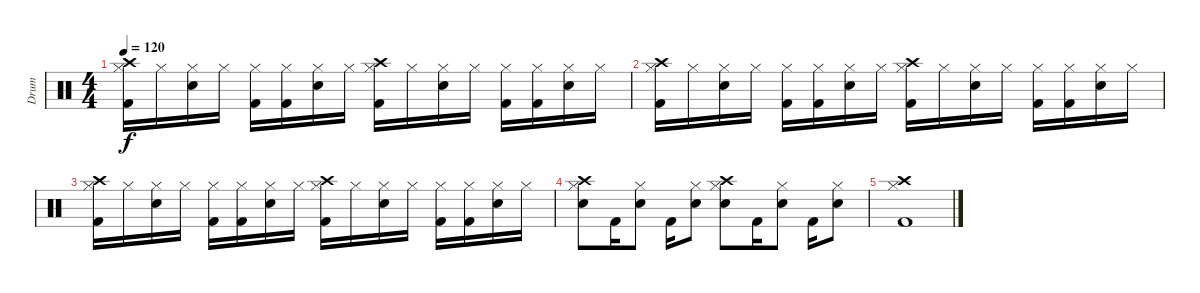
\track ("Drum" "Drum") {instrument percussion}
\staff {score}
\articulation defaults
\ts (4 4)
\tempo 120
\clef neutral
\ks c
("Kick (hit) 2" "Hi-Hat (closed)" "Crash high (hit)").16{dy f} "Hi-Hat (closed)".16 ("Electric Snare (hit)" "Hi-Hat (closed)").16 "Hi-Hat (closed)".16 ("Kick (hit) 2" "Hi-Hat (closed)").16 ("Kick (hit) 2" "Hi-Hat (closed)").16 ("Electric Snare (hit)" "Hi-Hat (closed)").16 "Hi-Hat (closed)".16 ("Kick (hit) 2" "Hi-Hat (closed)" "Crash high (hit)").16 "Hi-Hat (closed)".16 ("Electric Snare (hit)" "Hi-Hat (closed)").16 "Hi-Hat (closed)".16 ("Kick (hit) 2" "Hi-Hat (closed)").16 ("Kick (hit) 2" "Hi-Hat (closed)").16 ("Electric Snare (hit)" "Hi-Hat (closed)").16 "Hi-Hat (closed)".16 |
("Kick (hit) 2" "Hi-Hat (closed)" "Crash high (hit)").16 "Hi-Hat (closed)".16 ("Electric Snare (hit)" "Hi-Hat (closed)").16 "Hi-Hat (closed)".16 ("Kick (hit) 2" "Hi-Hat (closed)").16 ("Kick (hit) 2" "Hi-Hat (closed)").16 ("Electric Snare (hit)" "Hi-Hat (closed)").16 "Hi-Hat (closed)".16 ("Kick (hit) 2" "Hi-Hat (closed)" "Crash high (hit)").16 "Hi-Hat (closed)".16 ("Electric Snare (hit)" "Hi-Hat (closed)").16 "Hi-Hat (closed)".16 ("Kick (hit) 2" "Hi-Hat (closed)").16 ("Kick (hit) 2" "Hi-Hat (closed)").16 ("Electric Snare (hit)" "Hi-Hat (closed)").16 "Hi-Hat (closed)".16 |
("Kick (hit) 2" "Hi-Hat (closed)" "Crash high (hit)").16 "Hi-Hat (closed)".16 ("Electric Snare (hit)" "Hi-Hat (closed)").16 "Hi-Hat (closed)".16 ("Kick (hit) 2" "Hi-Hat (closed)").16 ("Kick (hit) 2" "Hi-Hat (closed)").16 ("Electric Snare (hit)" "Hi-Hat (closed)").16 "Hi-Hat (closed)".16 ("Kick (hit) 2" "Hi-Hat (closed)" "Crash high (hit)").16 "Hi-Hat (closed)".16 ("Electric Snare (hit)" "Hi-Hat (closed)").16 "Hi-Hat (closed)".16 ("Kick (hit) 2" "Hi-Hat (closed)").16 ("Kick (hit) 2" "Hi-Hat (closed)").16 ("Electric Snare (hit)" "Hi-Hat (closed)").16 "Hi-Hat (closed)".16 |
("Electric Snare (hit)" "Hi-Hat (closed)" "Crash high (hit)").8 "Kick (hit) 2".16 ("Electric Snare (hit)" "Hi-Hat (closed)").8 "Kick (hit) 2".16 ("Electric Snare (hit)" "Hi-Hat (closed)").8 ("Electric Snare (hit)" "Hi-Hat (closed)" "Crash high (hit)").8 "Kick (hit) 2".16 ("Electric Snare (hit)" "Hi-Hat (closed)").8 "Kick (hit) 2".16 ("Electric Snare (hit)" "Hi-Hat (closed)").8 |
("Kick (hit) 2" "Hi-Hat (closed)" "Crash high (hit)").1
